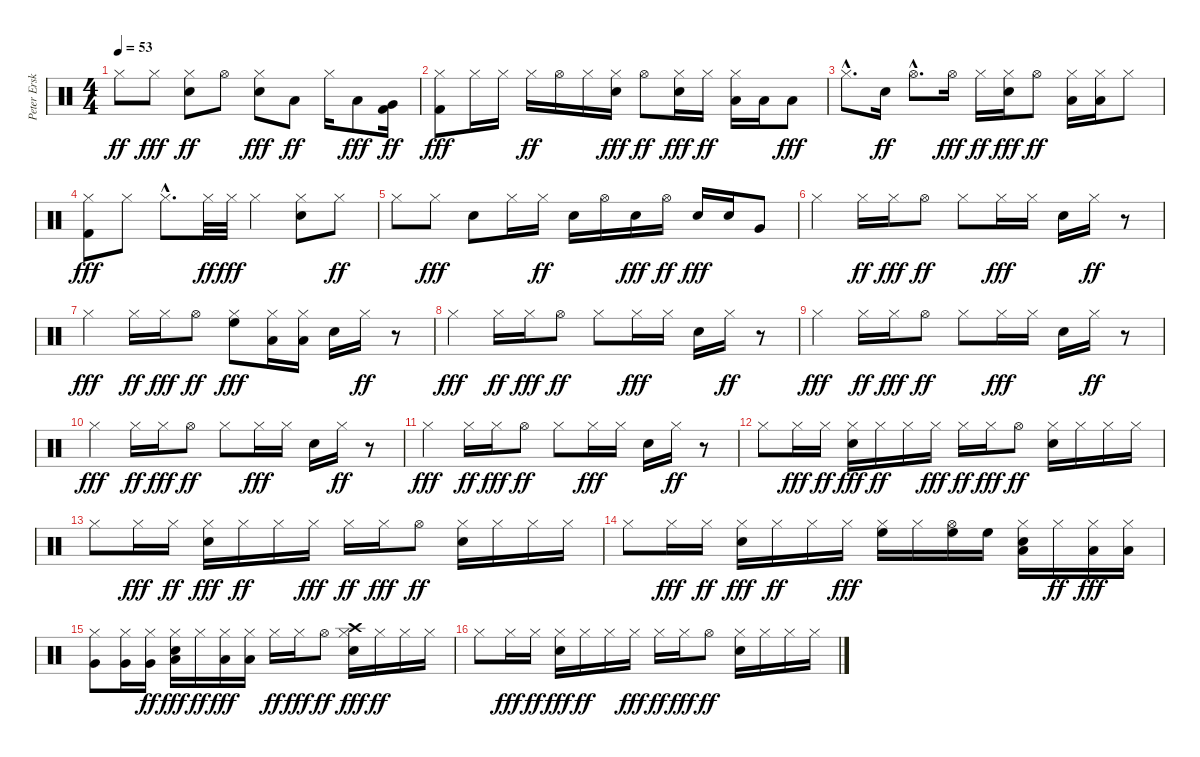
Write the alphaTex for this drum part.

\track ("Peter Erskine" "Peter Ersk") {instrument percussion}
\staff {score}
\articulation defaults
\ts (4 4)
\tempo 53
\clef neutral
\ks c "Hi-Hat (closed)".8{dy ff} "Hi-Hat (closed)".8{dy fff}
("Snare (hit) 2" "Hi-Hat (closed)").8{dy ff} "Hi-Hat (open)".8 ("Snare (hit) 2" "Hi-Hat (closed)").8{dy fff} "Low Tom (hit)".8{dy ff balance 0} "Hi-Hat (closed)".16 "Low Tom (hit)".8{dy fff} ("Kick (hit) 2" "Very Low Tom (hit)").16{dy ff balance 16} |
("Kick (hit) 2" "Hi-Hat (closed)").8{dy fff balance 8} "Hi-Hat (closed)".16 "Hi-Hat (closed)".16 "Hi-Hat (closed)".16{dy ff} "Hi-Hat (open)".16 "Hi-Hat (closed)".16 ("Snare (hit) 2" "Hi-Hat (closed)").16{dy fff} "Hi-Hat (open)".8{dy ff} ("Snare (hit) 2" "Hi-Hat (closed)").16{dy fff} "Hi-Hat (closed)".16{dy ff} ("Hi-Hat (closed)" "Low Tom (hit)").16{balance 0} "Low Tom (hit)".16 "Low Tom (hit)".8{dy fff} |
"Hi-Hat (closed)"{hac}.8{d balance 8} "Snare (hit) 2".16{dy ff} "Hi-Hat (open)"{hac}.8{d} "Hi-Hat (open)".16{dy fff} "Hi-Hat (closed)".16{dy ff} ("Snare (hit) 2" "Hi-Hat (closed)").16{dy fff} "Hi-Hat (open)".8{dy ff} ("Hi-Hat (closed)" "Low Tom (hit)").16{balance 0} ("Hi-Hat (closed)" "Low Tom (hit)").16 "Hi-Hat (closed)".8{balance 8} |
("Kick (hit) 2" "Hi-Hat (closed)").8{dy fff} "Hi-Hat (closed)".8 "Hi-Hat (closed)"{hac}.8{d} "Hi-Hat (closed)".32{dy ff} "Hi-Hat (closed)".32{dy fff} "Hi-Hat (closed)".4 ("Snare (hit) 2" "Hi-Hat (closed)").8 "Hi-Hat (closed)".8{dy ff} |
"Hi-Hat (closed)".8 "Hi-Hat (closed)".8{dy fff} "Snare (hit) 2".8 "Hi-Hat (closed)".16 "Hi-Hat (closed)".16{dy ff} "Snare (hit) 2".16 "Hi-Hat (open)".16 "Snare (hit) 2".16{dy fff} "Hi-Hat (open)".16{dy ff} "Snare (hit) 2".16{dy fff} "Snare (hit) 2".16 "Very Low Tom (hit)".8{balance 16} |
"Hi-Hat (closed)".4{balance 8} "Hi-Hat (closed)".16{dy ff} "Hi-Hat (closed)".16{dy fff} "Hi-Hat (open)".8{dy ff} "Hi-Hat (closed)".8 "Hi-Hat (closed)".16{dy fff} "Hi-Hat (closed)".16 "Snare (hit) 2".16 "Hi-Hat (closed)".16{dy ff} r.8 |
"Hi-Hat (closed)".4{dy fff} "Hi-Hat (closed)".16{dy ff} "Hi-Hat (closed)".16{dy fff} "Hi-Hat (open)".8{dy ff} ("Hi-Hat (closed)" "High Floor Tom (hit)").8{dy fff balance 16} ("Hi-Hat (closed)" "Low Tom (hit)").16{balance 0} ("Hi-Hat (closed)" "Low Tom (hit)").16 "Snare (hit) 2".16{balance 8} "Hi-Hat (closed)".16{dy ff} r.8 |
"Hi-Hat (closed)".4{dy fff} "Hi-Hat (closed)".16{dy ff} "Hi-Hat (closed)".16{dy fff} "Hi-Hat (open)".8{dy ff} "Hi-Hat (closed)".8 "Hi-Hat (closed)".16{dy fff} "Hi-Hat (closed)".16 "Snare (hit) 2".16 "Hi-Hat (closed)".16{dy ff} r.8 |
"Hi-Hat (closed)".4{dy fff} "Hi-Hat (closed)".16{dy ff} "Hi-Hat (closed)".16{dy fff} "Hi-Hat (open)".8{dy ff} "Hi-Hat (closed)".8 "Hi-Hat (closed)".16{dy fff} "Hi-Hat (closed)".16 "Snare (hit) 2".16 "Hi-Hat (closed)".16{dy ff} r.8 |
"Hi-Hat (closed)".4{dy fff} "Hi-Hat (closed)".16{dy ff} "Hi-Hat (closed)".16{dy fff} "Hi-Hat (open)".8{dy ff} "Hi-Hat (closed)".8 "Hi-Hat (closed)".16{dy fff} "Hi-Hat (closed)".16 "Snare (hit) 2".16 "Hi-Hat (closed)".16{dy ff} r.8 |
"Hi-Hat (closed)".4{dy fff} "Hi-Hat (closed)".16{dy ff} "Hi-Hat (closed)".16{dy fff} "Hi-Hat (open)".8{dy ff} "Hi-Hat (closed)".8 "Hi-Hat (closed)".16{dy fff} "Hi-Hat (closed)".16 "Snare (hit) 2".16 "Hi-Hat (closed)".16{dy ff} r.8 |
"Hi-Hat (closed)".8 "Hi-Hat (closed)".16{dy fff} "Hi-Hat (closed)".16{dy ff} ("Snare (hit) 2" "Hi-Hat (closed)").16{dy fff} "Hi-Hat (closed)".16{dy ff} "Hi-Hat (closed)".16 "Hi-Hat (closed)".16{dy fff} "Hi-Hat (closed)".16{dy ff} "Hi-Hat (closed)".16{dy fff} "Hi-Hat (open)".8{dy ff} ("Snare (hit) 2" "Hi-Hat (closed)").16 "Hi-Hat (closed)".16 "Hi-Hat (closed)".16 "Hi-Hat (closed)".16 |
"Hi-Hat (closed)".8 "Hi-Hat (closed)".16{dy fff} "Hi-Hat (closed)".16{dy ff} ("Snare (hit) 2" "Hi-Hat (closed)").16{dy fff} "Hi-Hat (closed)".16{dy ff} "Hi-Hat (closed)".16 "Hi-Hat (closed)".16{dy fff} "Hi-Hat (closed)".16{dy ff} "Hi-Hat (closed)".16{dy fff} "Hi-Hat (open)".8{dy ff} ("Snare (hit) 2" "Hi-Hat (closed)").16 "Hi-Hat (closed)".16 "Hi-Hat (closed)".16 "Hi-Hat (closed)".16 |
"Hi-Hat (closed)".8 "Hi-Hat (closed)".16{dy fff} "Hi-Hat (closed)".16{dy ff} ("Snare (hit) 2" "Hi-Hat (closed)").16{dy fff} "Hi-Hat (closed)".16{dy ff} "Hi-Hat (closed)".16 "Hi-Hat (closed)".16{dy fff} ("Hi-Hat (closed)" "High Floor Tom (hit)").16{balance 16} "Hi-Hat (closed)".16 ("Hi-Hat (open)" "High Floor Tom (hit)").16 "High Floor Tom (hit)".16 ("Snare (hit) 2" "Hi-Hat (closed)" "Low Tom (hit)").16{balance 0} "Hi-Hat (closed)".16{dy ff} ("Hi-Hat (closed)" "Low Tom (hit)").16{dy fff} ("Hi-Hat (closed)" "Low Tom (hit)").16 |
("Hi-Hat (closed)" "Very Low Tom (hit)").8{balance 16} ("Hi-Hat (closed)" "Very Low Tom (hit)").16 ("Hi-Hat (closed)" "Very Low Tom (hit)").16{dy ff} ("Snare (hit) 2" "Hi-Hat (closed)" "Low Floor Tom (hit)").16{dy fff balance 0} "Hi-Hat (closed)".16{dy ff} ("Hi-Hat (closed)" "Low Floor Tom (hit)").16{dy fff} ("Hi-Hat (closed)" "Low Floor Tom (hit)").16 "Hi-Hat (closed)".16{dy ff balance 8} "Hi-Hat (closed)".16{dy fff} "Hi-Hat (open)".8{dy ff} ("Snare (hit) 2" "Hi-Hat (closed)" "Crash high (hit)").16{dy fff} "Hi-Hat (closed)".16{dy ff} "Hi-Hat (closed)".16 "Hi-Hat (closed)".16 |
"Hi-Hat (closed)".8 "Hi-Hat (closed)".16{dy fff} "Hi-Hat (closed)".16{dy ff} ("Snare (hit) 2" "Hi-Hat (closed)").16{dy fff} "Hi-Hat (closed)".16{dy ff} "Hi-Hat (closed)".16 "Hi-Hat (closed)".16{dy fff} "Hi-Hat (closed)".16{dy ff} "Hi-Hat (closed)".16{dy fff} "Hi-Hat (open)".8{dy ff} ("Snare (hit) 2" "Hi-Hat (closed)").16 "Hi-Hat (closed)".16 "Hi-Hat (closed)".16 "Hi-Hat (closed)".16
